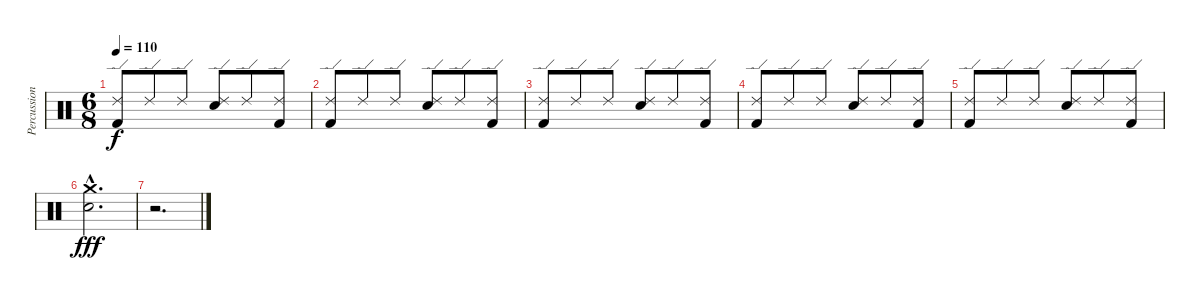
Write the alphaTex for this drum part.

\track ("Percussion" "Percussion") {instrument percussion}
\staff {score}
\articulation defaults
\ts (6 8)
\tempo 110
\clef neutral
\ks c
("Ride (edge) 2" "Kick (hit) 2").8{dy f} "Ride (edge) 2".8 "Ride (edge) 2".8 ("Ride (edge) 2" "Snare (hit) 2").8 "Ride (edge) 2".8 ("Ride (edge) 2" "Kick (hit) 2").8 |
("Ride (edge) 2" "Kick (hit) 2").8 "Ride (edge) 2".8 "Ride (edge) 2".8 ("Ride (edge) 2" "Snare (hit) 2").8 "Ride (edge) 2".8 ("Ride (edge) 2" "Kick (hit) 2").8 |
("Ride (edge) 2" "Kick (hit) 2").8 "Ride (edge) 2".8 "Ride (edge) 2".8 ("Ride (edge) 2" "Snare (hit) 2").8 "Ride (edge) 2".8 ("Ride (edge) 2" "Kick (hit) 2").8 |
("Ride (edge) 2" "Kick (hit) 2").8 "Ride (edge) 2".8 "Ride (edge) 2".8 ("Ride (edge) 2" "Snare (hit) 2").8 "Ride (edge) 2".8 ("Ride (edge) 2" "Kick (hit) 2").8 |
("Ride (edge) 2" "Kick (hit) 2").8 "Ride (edge) 2".8 "Ride (edge) 2".8 ("Ride (edge) 2" "Snare (hit) 2").8 "Ride (edge) 2".8 ("Ride (edge) 2" "Kick (hit) 2").8 |
("Crash medium (hit)"{hac} "Snare (hit) 2"{hac}).2{d dy fff} |
r.2{d}
